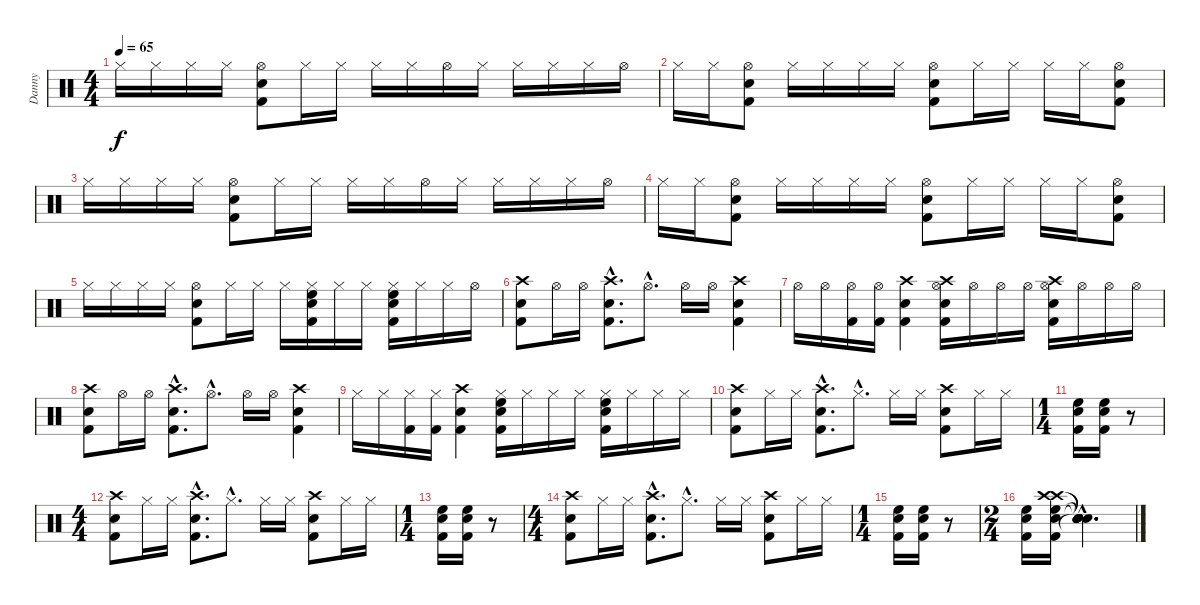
\track ("Danny" "Danny") {instrument percussion}
\staff {score}
\articulation defaults
\ts (4 4)
\tempo 65
\clef neutral
\ks c "Hi-Hat (closed)".16{dy f} "Hi-Hat (closed)".16 "Hi-Hat (closed)".16 "Hi-Hat (closed)".16
("Hi-Hat (open)" "Snare (hit) 2" "Kick (hit) 2").8 "Hi-Hat (closed)".16 "Hi-Hat (closed)".16 "Hi-Hat (closed)".16 "Hi-Hat (closed)".16 "Hi-Hat (open)".16 "Hi-Hat (closed)".16 "Hi-Hat (closed)".16 "Hi-Hat (closed)".16 "Hi-Hat (closed)".16 "Hi-Hat (open)".16 |
"Hi-Hat (closed)".16 "Hi-Hat (closed)".16 ("Hi-Hat (open)" "Snare (hit) 2" "Kick (hit) 2").8 "Hi-Hat (closed)".16 "Hi-Hat (closed)".16 "Hi-Hat (closed)".16 "Hi-Hat (closed)".16 ("Hi-Hat (open)" "Snare (hit) 2" "Kick (hit) 2").8 "Hi-Hat (closed)".16 "Hi-Hat (closed)".16 "Hi-Hat (closed)".16 "Hi-Hat (closed)".16 ("Hi-Hat (open)" "Snare (hit) 2" "Kick (hit) 2").8 |
"Hi-Hat (closed)".16 "Hi-Hat (closed)".16 "Hi-Hat (closed)".16 "Hi-Hat (closed)".16 ("Hi-Hat (open)" "Snare (hit) 2" "Kick (hit) 2").8 "Hi-Hat (closed)".16 "Hi-Hat (closed)".16 "Hi-Hat (closed)".16 "Hi-Hat (closed)".16 "Hi-Hat (open)".16 "Hi-Hat (closed)".16 "Hi-Hat (closed)".16 "Hi-Hat (closed)".16 "Hi-Hat (closed)".16 "Hi-Hat (open)".16 |
"Hi-Hat (closed)".16 "Hi-Hat (closed)".16 ("Hi-Hat (open)" "Snare (hit) 2" "Kick (hit) 2").8 "Hi-Hat (closed)".16 "Hi-Hat (closed)".16 "Hi-Hat (closed)".16 "Hi-Hat (closed)".16 ("Hi-Hat (open)" "Snare (hit) 2" "Kick (hit) 2").8 "Hi-Hat (closed)".16 "Hi-Hat (closed)".16 "Hi-Hat (closed)".16 "Hi-Hat (closed)".16 ("Hi-Hat (open)" "Snare (hit) 2" "Kick (hit) 2").8 |
"Hi-Hat (closed)".16 "Hi-Hat (closed)".16 "Hi-Hat (closed)".16 "Hi-Hat (closed)".16 ("Hi-Hat (open)" "Snare (hit) 2" "Kick (hit) 2").8 "Hi-Hat (closed)".16 "Hi-Hat (closed)".16 "Hi-Hat (closed)".16 ("High Floor Tom (hit)" "Hi-Hat (closed)" "Snare (hit) 2" "Kick (hit) 2").16 "Hi-Hat (closed)".16 "Hi-Hat (closed)".16 ("High Floor Tom (hit)" "Hi-Hat (closed)" "Snare (hit) 2" "Kick (hit) 2").16 "Hi-Hat (closed)".16 "Hi-Hat (closed)".16 "Hi-Hat (open)".16 |
("Crash high (hit)" "Snare (hit) 2" "Kick (hit) 2").8 "Hi-Hat (open)".16 "Hi-Hat (open)".16 ("Crash high (hit)"{hac} "Snare (hit) 2"{hac} "Kick (hit) 2"{hac}).8{d} "Hi-Hat (open)"{hac}.8{d} "Hi-Hat (open)".16 "Hi-Hat (open)".16 ("Crash high (hit)" "Snare (hit) 2" "Kick (hit) 2").4 |
"Hi-Hat (open)".16 "Hi-Hat (open)".16 ("Hi-Hat (open)" "Kick (hit) 2").16 ("Hi-Hat (open)" "Kick (hit) 2").16 ("Crash high (hit)" "Snare (hit) 2" "Kick (hit) 2").4 ("Crash high (hit)" "Hi-Hat (open)" "Snare (hit) 2" "Kick (hit) 2").16 "Hi-Hat (open)".16 "Hi-Hat (open)".16 "Hi-Hat (open)".16 ("Crash high (hit)" "Hi-Hat (open)" "Snare (hit) 2" "Kick (hit) 2").16 "Hi-Hat (open)".16 "Hi-Hat (open)".16 "Hi-Hat (open)".16 |
("Crash high (hit)" "Snare (hit) 2" "Kick (hit) 2").8 "Hi-Hat (open)".16 "Hi-Hat (open)".16 ("Crash high (hit)"{hac} "Snare (hit) 2"{hac} "Kick (hit) 2"{hac}).8{d} "Hi-Hat (open)"{hac}.8{d} "Hi-Hat (open)".16 "Hi-Hat (open)".16 ("Crash high (hit)" "Snare (hit) 2" "Kick (hit) 2").4 |
"Hi-Hat (closed)".16 "Hi-Hat (closed)".16 ("Hi-Hat (closed)" "Kick (hit) 2").16 ("Hi-Hat (closed)" "Kick (hit) 2").16 ("Crash high (hit)" "Snare (hit) 2" "Kick (hit) 2").4 ("High Floor Tom (hit)" "Hi-Hat (closed)" "Snare (hit) 2" "Kick (hit) 2").16 "Hi-Hat (closed)".16 "Hi-Hat (closed)".16 "Hi-Hat (closed)".16 ("High Floor Tom (hit)" "Hi-Hat (closed)" "Snare (hit) 2" "Kick (hit) 2").16 "Hi-Hat (closed)".16 "Hi-Hat (closed)".16 "Hi-Hat (closed)".16 |
("Crash high (hit)" "Snare (hit) 2" "Kick (hit) 2").8 "Hi-Hat (closed)".16 "Hi-Hat (closed)".16 ("Crash high (hit)"{hac} "Snare (hit) 2"{hac} "Kick (hit) 2"{hac}).8{d} "Hi-Hat (closed)"{hac}.8{d} "Hi-Hat (closed)".16 "Hi-Hat (closed)".16 ("Crash high (hit)" "Snare (hit) 2" "Kick (hit) 2").8 "Hi-Hat (closed)".16 "Hi-Hat (closed)".16 |
\ts (1 4)
("High Floor Tom (hit)" "Snare (hit) 2" "Kick (hit) 2").16 ("High Floor Tom (hit)" "Snare (hit) 2" "Kick (hit) 2").16 r.8 |
\ts (4 4)
("Crash high (hit)" "Snare (hit) 2" "Kick (hit) 2").8 "Hi-Hat (closed)".16 "Hi-Hat (closed)".16 ("Crash high (hit)"{hac} "Snare (hit) 2"{hac} "Kick (hit) 2"{hac}).8{d} "Hi-Hat (closed)"{hac}.8{d} "Hi-Hat (closed)".16 "Hi-Hat (closed)".16 ("Crash high (hit)" "Snare (hit) 2" "Kick (hit) 2").8 "Hi-Hat (closed)".16 "Hi-Hat (closed)".16 |
\ts (1 4)
("High Floor Tom (hit)" "Snare (hit) 2" "Kick (hit) 2").16 ("High Floor Tom (hit)" "Snare (hit) 2" "Kick (hit) 2").16 r.8 |
\ts (4 4)
("Crash high (hit)" "Snare (hit) 2" "Kick (hit) 2").8 "Hi-Hat (closed)".16 "Hi-Hat (closed)".16 ("Crash high (hit)"{hac} "Snare (hit) 2"{hac} "Kick (hit) 2"{hac}).8{d} "Hi-Hat (closed)"{hac}.8{d} "Hi-Hat (closed)".16 "Hi-Hat (closed)".16 ("Crash high (hit)" "Snare (hit) 2" "Kick (hit) 2").8 "Hi-Hat (closed)".16 "Hi-Hat (closed)".16 |
\ts (1 4)
("High Floor Tom (hit)" "Snare (hit) 2" "Kick (hit) 2").16 ("High Floor Tom (hit)" "Snare (hit) 2" "Kick (hit) 2").16 r.8 |
\ts (2 4)
("High Floor Tom (hit)" "Snare (hit) 2" "Kick (hit) 2").16 ("Crash high (hit)" "Crash high (hit)" "High Floor Tom (hit)" "Snare (hit) 2" "Kick (hit) 2").16 ("Snare (hit)"{hac t} "Snare (hit)"{hac t} "Snare (hit)"{hac t} "Snare (hit)"{hac t} "Snare (hit)"{hac t} "Snare (hit)"{hac}).4{d}
